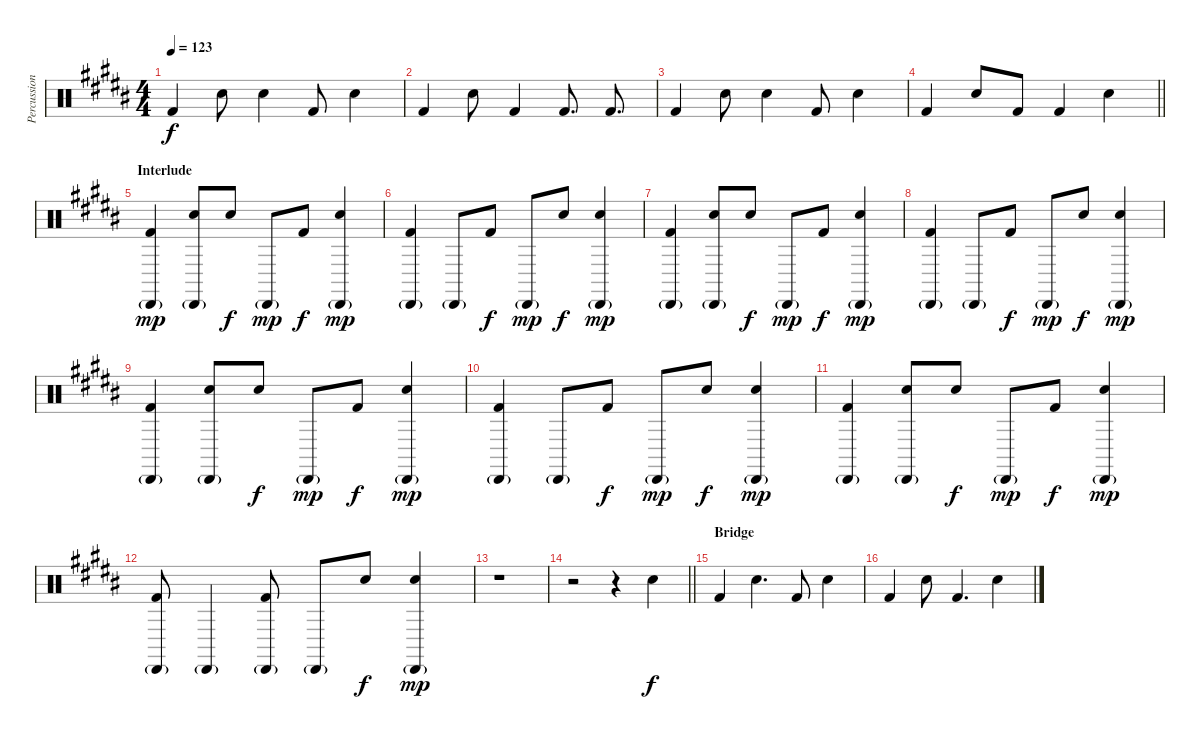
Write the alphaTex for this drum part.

\track ("Percussion" "Percussion") {instrument percussion}
\staff {score}
\articulation defaults
\ts (4 4)
\tempo 123
\clef neutral
\ks g#minor "Kick (hit) 2".4{dy f} "Hand Clap (hit)".8 "Hand Clap (hit)".4 "Kick (hit) 2".8 "Hand Clap (hit)".4
|
"Kick (hit) 2".4 "Hand Clap (hit)".8 "Kick (hit) 2".4 "Kick (hit) 2".8{d} "Kick (hit) 2".8{d} |
"Kick (hit) 2".4 "Hand Clap (hit)".8 "Hand Clap (hit)".4 "Kick (hit) 2".8 "Hand Clap (hit)".4 |
\barLineRight lightlight "Kick (hit) 2".4 "Hand Clap (hit)".8 "Kick (hit) 2".8 "Kick (hit) 2".4 "Hand Clap (hit)".4
|
\section ("" "Interlude")
("Cabasa (hit)"{g} "Kick (hit) 2").4{dy mp} ("Cabasa (hit)"{g} "Hand Clap (hit)").8 "Hand Clap (hit)".8{dy f} "Cabasa (hit)"{g}.8{dy mp} "Kick (hit) 2".8{dy f} ("Cabasa (hit)"{g} "Hand Clap (hit)").4{dy mp} |
("Cabasa (hit)"{g} "Kick (hit) 2").4 "Cabasa (hit)"{g}.8 "Kick (hit) 2".8{dy f} "Cabasa (hit)"{g}.8{dy mp} "Hand Clap (hit)".8{dy f} ("Cabasa (hit)"{g} "Hand Clap (hit)").4{dy mp} |
("Cabasa (hit)"{g} "Kick (hit) 2").4 ("Cabasa (hit)"{g} "Hand Clap (hit)").8 "Hand Clap (hit)".8{dy f} "Cabasa (hit)"{g}.8{dy mp} "Kick (hit) 2".8{dy f} ("Cabasa (hit)"{g} "Hand Clap (hit)").4{dy mp} |
("Cabasa (hit)"{g} "Kick (hit) 2").4 "Cabasa (hit)"{g}.8 "Kick (hit) 2".8{dy f} "Cabasa (hit)"{g}.8{dy mp} "Hand Clap (hit)".8{dy f} ("Cabasa (hit)"{g} "Hand Clap (hit)").4{dy mp} |
("Cabasa (hit)"{g} "Kick (hit) 2").4 ("Cabasa (hit)"{g} "Hand Clap (hit)").8 "Hand Clap (hit)".8{dy f} "Cabasa (hit)"{g}.8{dy mp} "Kick (hit) 2".8{dy f} ("Cabasa (hit)"{g} "Hand Clap (hit)").4{dy mp} |
("Cabasa (hit)"{g} "Kick (hit) 2").4 "Cabasa (hit)"{g}.8 "Kick (hit) 2".8{dy f} "Cabasa (hit)"{g}.8{dy mp} "Hand Clap (hit)".8{dy f} ("Cabasa (hit)"{g} "Hand Clap (hit)").4{dy mp} |
("Cabasa (hit)"{g} "Kick (hit) 2").4 ("Cabasa (hit)"{g} "Hand Clap (hit)").8 "Hand Clap (hit)".8{dy f} "Cabasa (hit)"{g}.8{dy mp} "Kick (hit) 2".8{dy f} ("Cabasa (hit)"{g} "Hand Clap (hit)").4{dy mp} |
("Cabasa (hit)"{g} "Kick (hit) 2").8 "Cabasa (hit)"{g}.4 ("Cabasa (hit)"{g} "Kick (hit) 2").8 "Cabasa (hit)"{g}.8 "Hand Clap (hit)".8{dy f} ("Cabasa (hit)"{g} "Hand Clap (hit)").4{dy mp} |
r.1 |
\barLineRight lightlight
r.2 r.4 "Snare (hit) 2".4{dy f} |
\section ("" "Bridge")
"Kick (hit) 2".4 "Snare (hit) 2".4{d} "Kick (hit) 2".8 "Snare (hit) 2".4 |
"Kick (hit) 2".4 "Snare (hit) 2".8 "Kick (hit) 2".4{d} "Snare (hit) 2".4
